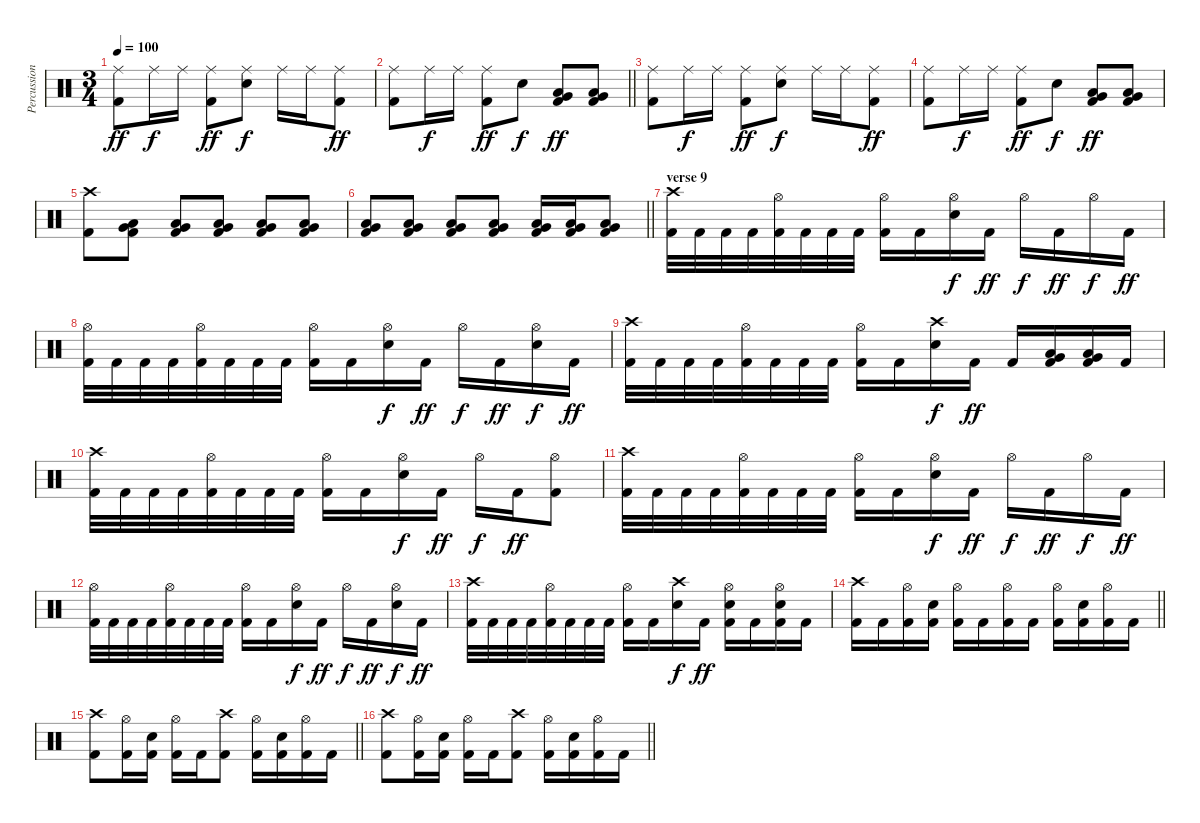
\track ("Percussion" "Percussion") {instrument percussion}
\staff {score}
\articulation defaults
\ts (3 4)
\tempo 100
\clef neutral
\ks c
("Ride (middle)" "Kick (hit) 2").8{dy ff} "Ride (middle)".16{dy f} "Ride (middle)".16 ("Ride (middle)" "Kick (hit) 2").8{dy ff} ("Ride (middle)" "Snare (hit) 2").8{dy f} "Ride (middle)".16 "Ride (middle)".16 ("Ride (middle)" "Kick (hit) 2").8{dy ff} |
\barLineRight lightlight
("Ride (middle)" "Kick (hit) 2").8 "Ride (middle)".16{dy f} "Ride (middle)".16 ("Ride (middle)" "Kick (hit) 2").8{dy ff} "Snare (hit) 2".8{dy f} ("Low Tom (hit)" "Very Low Tom (hit)" "Kick (hit) 2").8{dy ff} ("Low Tom (hit)" "Very Low Tom (hit)" "Kick (hit) 2").8 |
("Ride (middle)" "Kick (hit) 2").8 "Ride (middle)".16{dy f} "Ride (middle)".16 ("Ride (middle)" "Kick (hit) 2").8{dy ff} ("Ride (middle)" "Snare (hit) 2").8{dy f} "Ride (middle)".16 "Ride (middle)".16 ("Ride (middle)" "Kick (hit) 2").8{dy ff} |
("Ride (middle)" "Kick (hit) 2").8 "Ride (middle)".16{dy f} "Ride (middle)".16 ("Ride (middle)" "Kick (hit) 2").8{dy ff} "Snare (hit) 2".8{dy f} ("Low Tom (hit)" "Very Low Tom (hit)" "Kick (hit) 2").8{dy ff} ("Low Tom (hit)" "Very Low Tom (hit)" "Kick (hit) 2").8 |
("Crash high (hit)" "Kick (hit) 2").8 ("Very Low Tom (hit)" "Low Tom (hit)" "Kick (hit) 2").8 ("Very Low Tom (hit)" "Low Tom (hit)" "Kick (hit) 2").8 ("Very Low Tom (hit)" "Low Tom (hit)" "Kick (hit) 2").8 ("Very Low Tom (hit)" "Low Tom (hit)" "Kick (hit) 2").8 ("Very Low Tom (hit)" "Low Tom (hit)" "Kick (hit) 2").8 |
\barLineRight lightlight
("Very Low Tom (hit)" "Low Tom (hit)" "Kick (hit) 2").8 ("Very Low Tom (hit)" "Low Tom (hit)" "Kick (hit) 2").8 ("Very Low Tom (hit)" "Low Tom (hit)" "Kick (hit) 2").8 ("Very Low Tom (hit)" "Low Tom (hit)" "Kick (hit) 2").8 ("Very Low Tom (hit)" "Low Tom (hit)" "Kick (hit) 2").16 ("Very Low Tom (hit)" "Low Tom (hit)" "Kick (hit) 2").16 ("Very Low Tom (hit)" "Low Tom (hit)" "Kick (hit) 2").8 |
\section ("" "verse 9")
("Crash high (hit)" "Kick (hit) 2").32 "Kick (hit) 2".32 "Kick (hit) 2".32 "Kick (hit) 2".32 ("Hi-Hat (open)" "Kick (hit) 2").32 "Kick (hit) 2".32 "Kick (hit) 2".32 "Kick (hit) 2".32 ("Hi-Hat (open)" "Kick (hit) 2").16 "Kick (hit) 2".16 ("Hi-Hat (open)" "Snare (hit) 2").16{dy f} "Kick (hit) 2".16{dy ff} "Hi-Hat (open)".16{dy f} "Kick (hit) 2".16{dy ff} "Hi-Hat (open)".16{dy f} "Kick (hit) 2".16{dy ff} |
("Hi-Hat (open)" "Kick (hit) 2").32 "Kick (hit) 2".32 "Kick (hit) 2".32 "Kick (hit) 2".32 ("Hi-Hat (open)" "Kick (hit) 2").32 "Kick (hit) 2".32 "Kick (hit) 2".32 "Kick (hit) 2".32 ("Hi-Hat (open)" "Kick (hit) 2").16 "Kick (hit) 2".16 ("Hi-Hat (open)" "Snare (hit) 2").16{dy f} "Kick (hit) 2".16{dy ff} "Hi-Hat (open)".16{dy f} "Kick (hit) 2".16{dy ff} ("Hi-Hat (open)" "Snare (hit) 2").16{dy f} "Kick (hit) 2".16{dy ff} |
("Crash high (hit)" "Kick (hit) 2").32 "Kick (hit) 2".32 "Kick (hit) 2".32 "Kick (hit) 2".32 ("Hi-Hat (open)" "Kick (hit) 2").32 "Kick (hit) 2".32 "Kick (hit) 2".32 "Kick (hit) 2".32 ("Hi-Hat (open)" "Kick (hit) 2").16 "Kick (hit) 2".16 ("Crash high (hit)" "Snare (hit) 2").16{dy f} "Kick (hit) 2".16{dy ff} "Kick (hit) 2".16 ("Low Tom (hit)" "Very Low Tom (hit)" "Kick (hit) 2").16 ("Low Tom (hit)" "Very Low Tom (hit)" "Kick (hit) 2").16 "Kick (hit) 2".16 |
("Crash high (hit)" "Kick (hit) 2").32 "Kick (hit) 2".32 "Kick (hit) 2".32 "Kick (hit) 2".32 ("Hi-Hat (open)" "Kick (hit) 2").32 "Kick (hit) 2".32 "Kick (hit) 2".32 "Kick (hit) 2".32 ("Hi-Hat (open)" "Kick (hit) 2").16 "Kick (hit) 2".16 ("Hi-Hat (open)" "Snare (hit) 2").16{dy f} "Kick (hit) 2".16{dy ff} "Hi-Hat (open)".16{dy f} "Kick (hit) 2".16{dy ff} ("Hi-Hat (open)" "Kick (hit) 2").8 |
("Crash high (hit)" "Kick (hit) 2").32 "Kick (hit) 2".32 "Kick (hit) 2".32 "Kick (hit) 2".32 ("Hi-Hat (open)" "Kick (hit) 2").32 "Kick (hit) 2".32 "Kick (hit) 2".32 "Kick (hit) 2".32 ("Hi-Hat (open)" "Kick (hit) 2").16 "Kick (hit) 2".16 ("Hi-Hat (open)" "Snare (hit) 2").16{dy f} "Kick (hit) 2".16{dy ff} "Hi-Hat (open)".16{dy f} "Kick (hit) 2".16{dy ff} "Hi-Hat (open)".16{dy f} "Kick (hit) 2".16{dy ff} |
("Hi-Hat (open)" "Kick (hit) 2").32 "Kick (hit) 2".32 "Kick (hit) 2".32 "Kick (hit) 2".32 ("Hi-Hat (open)" "Kick (hit) 2").32 "Kick (hit) 2".32 "Kick (hit) 2".32 "Kick (hit) 2".32 ("Hi-Hat (open)" "Kick (hit) 2").16 "Kick (hit) 2".16 ("Hi-Hat (open)" "Snare (hit) 2").16{dy f} "Kick (hit) 2".16{dy ff} "Hi-Hat (open)".16{dy f} "Kick (hit) 2".16{dy ff} ("Hi-Hat (open)" "Snare (hit) 2").16{dy f} "Kick (hit) 2".16{dy ff} |
("Crash high (hit)" "Kick (hit) 2").32 "Kick (hit) 2".32 "Kick (hit) 2".32 "Kick (hit) 2".32 ("Hi-Hat (open)" "Kick (hit) 2").32 "Kick (hit) 2".32 "Kick (hit) 2".32 "Kick (hit) 2".32 ("Hi-Hat (open)" "Kick (hit) 2").16 "Kick (hit) 2".16 ("Crash high (hit)" "Snare (hit) 2").16{dy f} "Kick (hit) 2".16{dy ff} ("Hi-Hat (open)" "Snare (hit) 2" "Kick (hit) 2").16 "Kick (hit) 2".16 ("Hi-Hat (open)" "Snare (hit) 2" "Kick (hit) 2").16 "Kick (hit) 2".16 |
\barLineRight lightlight
("Crash high (hit)" "Kick (hit) 2").16 "Kick (hit) 2".16 ("Hi-Hat (open)" "Kick (hit) 2").16 ("Snare (hit) 2" "Kick (hit) 2").16 ("Hi-Hat (open)" "Kick (hit) 2").16 "Kick (hit) 2".16 ("Hi-Hat (open)" "Kick (hit) 2").16 "Kick (hit) 2".16 ("Hi-Hat (open)" "Kick (hit) 2").16 ("Snare (hit) 2" "Kick (hit) 2").16 ("Hi-Hat (open)" "Kick (hit) 2").16 "Kick (hit) 2".16 |
\section ("" "")
\barLineRight lightlight
("Crash high (hit)" "Kick (hit) 2").8 ("Hi-Hat (open)" "Kick (hit) 2").16 ("Snare (hit) 2" "Kick (hit) 2").16 ("Hi-Hat (open)" "Kick (hit) 2").16 "Kick (hit) 2".16 ("Crash high (hit)" "Kick (hit) 2").8 ("Hi-Hat (open)" "Kick (hit) 2").16 ("Snare (hit) 2" "Kick (hit) 2").16 ("Hi-Hat (open)" "Kick (hit) 2").16 "Kick (hit) 2".16 |
\barLineRight lightlight
("Crash high (hit)" "Kick (hit) 2").8 ("Hi-Hat (open)" "Kick (hit) 2").16 ("Snare (hit) 2" "Kick (hit) 2").16 ("Hi-Hat (open)" "Kick (hit) 2").16 "Kick (hit) 2".16 ("Crash high (hit)" "Kick (hit) 2").8 ("Hi-Hat (open)" "Kick (hit) 2").16 ("Snare (hit) 2" "Kick (hit) 2").16 ("Hi-Hat (open)" "Kick (hit) 2").16 "Kick (hit) 2".16
